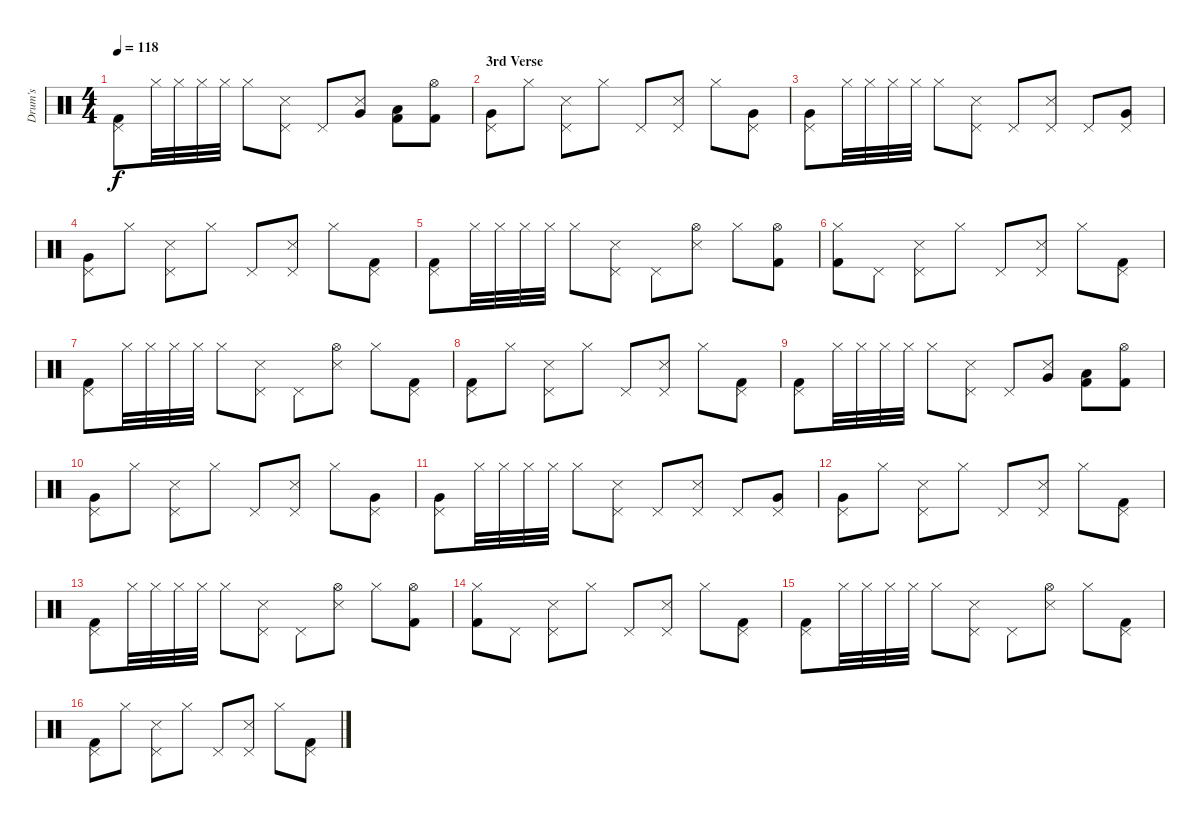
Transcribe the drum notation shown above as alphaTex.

\track ("Drum's" "Drum's") {instrument percussion}
\staff {score}
\articulation defaults
\ts (4 4)
\tempo 118
\clef neutral
\ks c
("Pedal Hi-Hat (hit)" "Kick (hit) 2").8{dy f} "Hi-Hat (closed)".32 "Hi-Hat (closed)".32 "Hi-Hat (closed)".32 "Hi-Hat (closed)".32 "Hi-Hat (closed)".8 ("Pedal Hi-Hat (hit)" "Snare (side stick) 3").8 "Pedal Hi-Hat (hit)".8 ("Snare (side stick) 3" "Very Low Tom (hit)").8 ("Kick (hit) 2" "Low Tom (hit)").8 ("Hi-Hat (open)" "Kick (hit) 2").8 |
\section ("" "3rd Verse")
("Pedal Hi-Hat (hit)" "Very Low Tom (hit)").8 "Hi-Hat (closed)".8 ("Pedal Hi-Hat (hit)" "Snare (side stick) 3").8 "Hi-Hat (closed)".8 "Pedal Hi-Hat (hit)".8 ("Pedal Hi-Hat (hit)" "Snare (side stick) 3").8 "Hi-Hat (closed)".8 ("Pedal Hi-Hat (hit)" "Very Low Tom (hit)").8 |
("Pedal Hi-Hat (hit)" "Very Low Tom (hit)").8 "Hi-Hat (closed)".32 "Hi-Hat (closed)".32 "Hi-Hat (closed)".32 "Hi-Hat (closed)".32 "Hi-Hat (closed)".8 ("Pedal Hi-Hat (hit)" "Snare (side stick) 3").8 "Pedal Hi-Hat (hit)".8 ("Pedal Hi-Hat (hit)" "Snare (side stick) 3").8 "Pedal Hi-Hat (hit)".8 ("Pedal Hi-Hat (hit)" "Very Low Tom (hit)").8 |
("Pedal Hi-Hat (hit)" "Very Low Tom (hit)").8 "Hi-Hat (closed)".8 ("Pedal Hi-Hat (hit)" "Snare (side stick) 3").8 "Hi-Hat (closed)".8 "Pedal Hi-Hat (hit)".8 ("Pedal Hi-Hat (hit)" "Snare (side stick) 3").8 "Hi-Hat (closed)".8 ("Pedal Hi-Hat (hit)" "Kick (hit) 2").8 |
("Pedal Hi-Hat (hit)" "Kick (hit) 2").8 "Hi-Hat (closed)".32 "Hi-Hat (closed)".32 "Hi-Hat (closed)".32 "Hi-Hat (closed)".32 "Hi-Hat (closed)".8 ("Pedal Hi-Hat (hit)" "Snare (side stick) 3").8 "Pedal Hi-Hat (hit)".8 ("Hi-Hat (open)" "Snare (side stick) 3").8 "Hi-Hat (closed)".8 ("Hi-Hat (open)" "Kick (hit) 2").8 |
("Hi-Hat (closed)" "Kick (hit) 2").8 "Pedal Hi-Hat (hit)".8 ("Pedal Hi-Hat (hit)" "Snare (side stick) 3").8 "Hi-Hat (closed)".8 "Pedal Hi-Hat (hit)".8 ("Pedal Hi-Hat (hit)" "Snare (side stick) 3").8 "Hi-Hat (closed)".8 ("Pedal Hi-Hat (hit)" "Kick (hit) 2").8 |
("Pedal Hi-Hat (hit)" "Kick (hit) 2").8 "Hi-Hat (closed)".32 "Hi-Hat (closed)".32 "Hi-Hat (closed)".32 "Hi-Hat (closed)".32 "Hi-Hat (closed)".8 ("Pedal Hi-Hat (hit)" "Snare (side stick) 3").8 "Pedal Hi-Hat (hit)".8 ("Hi-Hat (open)" "Snare (side stick) 3").8 "Hi-Hat (closed)".8 ("Pedal Hi-Hat (hit)" "Kick (hit) 2").8 |
("Pedal Hi-Hat (hit)" "Kick (hit) 2").8 "Hi-Hat (closed)".8 ("Pedal Hi-Hat (hit)" "Snare (side stick) 3").8 "Hi-Hat (closed)".8 "Pedal Hi-Hat (hit)".8 ("Pedal Hi-Hat (hit)" "Snare (side stick) 3").8 "Hi-Hat (closed)".8 ("Pedal Hi-Hat (hit)" "Kick (hit) 2").8 |
("Pedal Hi-Hat (hit)" "Kick (hit) 2").8 "Hi-Hat (closed)".32 "Hi-Hat (closed)".32 "Hi-Hat (closed)".32 "Hi-Hat (closed)".32 "Hi-Hat (closed)".8 ("Pedal Hi-Hat (hit)" "Snare (side stick) 3").8 "Pedal Hi-Hat (hit)".8 ("Snare (side stick) 3" "Very Low Tom (hit)").8 ("Kick (hit) 2" "Low Tom (hit)").8 ("Hi-Hat (open)" "Kick (hit) 2").8 |
("Pedal Hi-Hat (hit)" "Very Low Tom (hit)").8 "Hi-Hat (closed)".8 ("Pedal Hi-Hat (hit)" "Snare (side stick) 3").8 "Hi-Hat (closed)".8 "Pedal Hi-Hat (hit)".8 ("Pedal Hi-Hat (hit)" "Snare (side stick) 3").8 "Hi-Hat (closed)".8 ("Pedal Hi-Hat (hit)" "Very Low Tom (hit)").8 |
("Pedal Hi-Hat (hit)" "Very Low Tom (hit)").8 "Hi-Hat (closed)".32 "Hi-Hat (closed)".32 "Hi-Hat (closed)".32 "Hi-Hat (closed)".32 "Hi-Hat (closed)".8 ("Pedal Hi-Hat (hit)" "Snare (side stick) 3").8 "Pedal Hi-Hat (hit)".8 ("Pedal Hi-Hat (hit)" "Snare (side stick) 3").8 "Pedal Hi-Hat (hit)".8 ("Pedal Hi-Hat (hit)" "Very Low Tom (hit)").8 |
("Pedal Hi-Hat (hit)" "Very Low Tom (hit)").8 "Hi-Hat (closed)".8 ("Pedal Hi-Hat (hit)" "Snare (side stick) 3").8 "Hi-Hat (closed)".8 "Pedal Hi-Hat (hit)".8 ("Pedal Hi-Hat (hit)" "Snare (side stick) 3").8 "Hi-Hat (closed)".8 ("Pedal Hi-Hat (hit)" "Kick (hit) 2").8 |
("Pedal Hi-Hat (hit)" "Kick (hit) 2").8 "Hi-Hat (closed)".32 "Hi-Hat (closed)".32 "Hi-Hat (closed)".32 "Hi-Hat (closed)".32 "Hi-Hat (closed)".8 ("Pedal Hi-Hat (hit)" "Snare (side stick) 3").8 "Pedal Hi-Hat (hit)".8 ("Hi-Hat (open)" "Snare (side stick) 3").8 "Hi-Hat (closed)".8 ("Hi-Hat (open)" "Kick (hit) 2").8 |
("Hi-Hat (closed)" "Kick (hit) 2").8 "Pedal Hi-Hat (hit)".8 ("Pedal Hi-Hat (hit)" "Snare (side stick) 3").8 "Hi-Hat (closed)".8 "Pedal Hi-Hat (hit)".8 ("Pedal Hi-Hat (hit)" "Snare (side stick) 3").8 "Hi-Hat (closed)".8 ("Pedal Hi-Hat (hit)" "Kick (hit) 2").8 |
("Pedal Hi-Hat (hit)" "Kick (hit) 2").8 "Hi-Hat (closed)".32 "Hi-Hat (closed)".32 "Hi-Hat (closed)".32 "Hi-Hat (closed)".32 "Hi-Hat (closed)".8 ("Pedal Hi-Hat (hit)" "Snare (side stick) 3").8 "Pedal Hi-Hat (hit)".8 ("Hi-Hat (open)" "Snare (side stick) 3").8 "Hi-Hat (closed)".8 ("Pedal Hi-Hat (hit)" "Kick (hit) 2").8 |
("Pedal Hi-Hat (hit)" "Kick (hit) 2").8 "Hi-Hat (closed)".8 ("Pedal Hi-Hat (hit)" "Snare (side stick) 3").8 "Hi-Hat (closed)".8 "Pedal Hi-Hat (hit)".8 ("Pedal Hi-Hat (hit)" "Snare (side stick) 3").8 "Hi-Hat (closed)".8 ("Pedal Hi-Hat (hit)" "Kick (hit) 2").8
